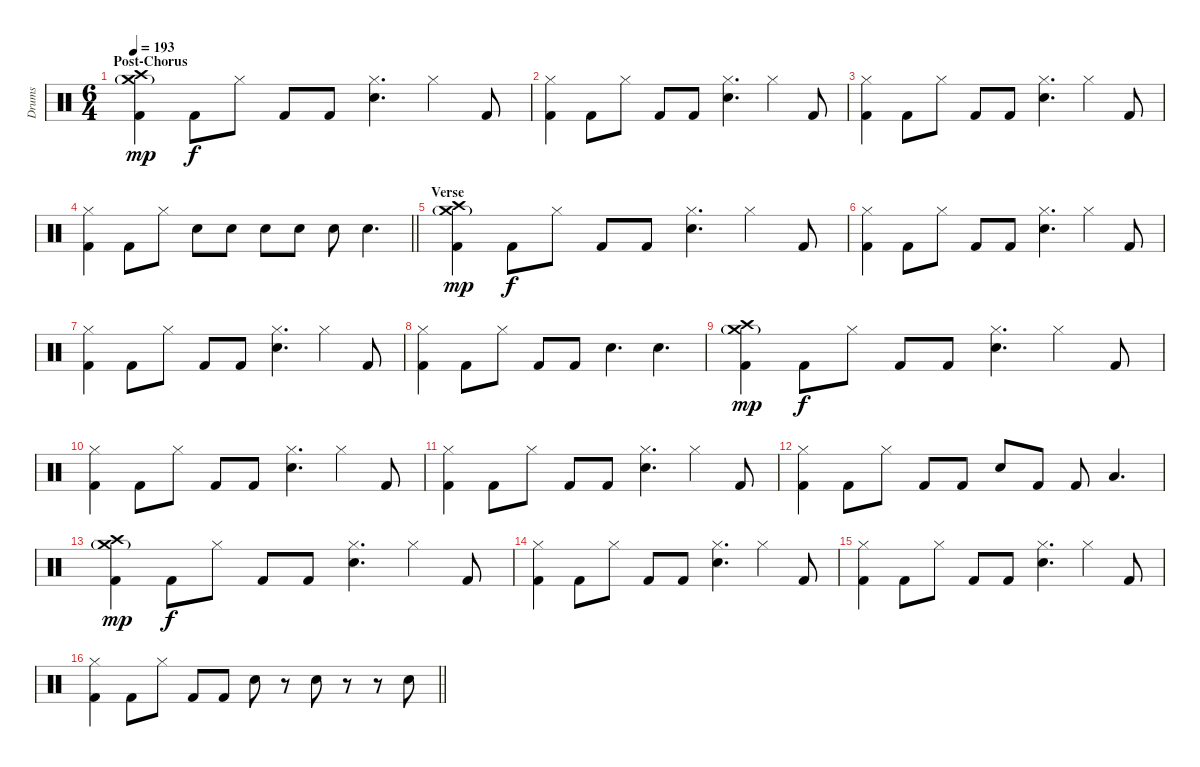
\track ("Drums" "Drums") {instrument percussion}
\staff {score}
\articulation defaults
\ts (6 4)
\section ("" "Post-Chorus")
\tempo 193
\clef neutral
\ks c
("Crash high (hit)" "Crash medium (hit)"{g} "Kick (hit) 2").4{dy mp} "Kick (hit) 2".8{dy f} "Hi-Hat (closed)".8 "Kick (hit) 2".8 "Kick (hit) 2".8 ("Hi-Hat (closed)" "Electric Snare (hit)").4{d} "Hi-Hat (closed)".4 "Kick (hit) 2".8 |
("Hi-Hat (closed)" "Kick (hit) 2").4 "Kick (hit) 2".8 "Hi-Hat (closed)".8 "Kick (hit) 2".8 "Kick (hit) 2".8 ("Hi-Hat (closed)" "Electric Snare (hit)").4{d} "Hi-Hat (closed)".4 "Kick (hit) 2".8 |
("Hi-Hat (closed)" "Kick (hit) 2").4 "Kick (hit) 2".8 "Hi-Hat (closed)".8 "Kick (hit) 2".8 "Kick (hit) 2".8 ("Hi-Hat (closed)" "Electric Snare (hit)").4{d} "Hi-Hat (closed)".4 "Kick (hit) 2".8 |
\barLineRight lightlight
("Hi-Hat (closed)" "Kick (hit) 2").4 "Kick (hit) 2".8 "Hi-Hat (closed)".8 "Electric Snare (hit)".8 "Electric Snare (hit)".8 "Electric Snare (hit)".8 "Electric Snare (hit)".8 "Electric Snare (hit)".8 "Electric Snare (hit)".4{d} |
\section ("" "Verse")
("Crash high (hit)" "Crash medium (hit)"{g} "Kick (hit) 2").4{dy mp} "Kick (hit) 2".8{dy f} "Hi-Hat (closed)".8 "Kick (hit) 2".8 "Kick (hit) 2".8 ("Hi-Hat (closed)" "Electric Snare (hit)").4{d} "Hi-Hat (closed)".4 "Kick (hit) 2".8 |
("Hi-Hat (closed)" "Kick (hit) 2").4 "Kick (hit) 2".8 "Hi-Hat (closed)".8 "Kick (hit) 2".8 "Kick (hit) 2".8 ("Hi-Hat (closed)" "Electric Snare (hit)").4{d} "Hi-Hat (closed)".4 "Kick (hit) 2".8 |
("Hi-Hat (closed)" "Kick (hit) 2").4 "Kick (hit) 2".8 "Hi-Hat (closed)".8 "Kick (hit) 2".8 "Kick (hit) 2".8 ("Hi-Hat (closed)" "Electric Snare (hit)").4{d} "Hi-Hat (closed)".4 "Kick (hit) 2".8 |
("Hi-Hat (closed)" "Kick (hit) 2").4 "Kick (hit) 2".8 "Hi-Hat (closed)".8 "Kick (hit) 2".8 "Kick (hit) 2".8 "Electric Snare (hit)".4{d} "Electric Snare (hit)".4{d} |
("Crash high (hit)" "Crash medium (hit)"{g} "Kick (hit) 2").4{dy mp} "Kick (hit) 2".8{dy f} "Hi-Hat (closed)".8 "Kick (hit) 2".8 "Kick (hit) 2".8 ("Hi-Hat (closed)" "Electric Snare (hit)").4{d} "Hi-Hat (closed)".4 "Kick (hit) 2".8 |
("Hi-Hat (closed)" "Kick (hit) 2").4 "Kick (hit) 2".8 "Hi-Hat (closed)".8 "Kick (hit) 2".8 "Kick (hit) 2".8 ("Hi-Hat (closed)" "Electric Snare (hit)").4{d} "Hi-Hat (closed)".4 "Kick (hit) 2".8 |
("Hi-Hat (closed)" "Kick (hit) 2").4 "Kick (hit) 2".8 "Hi-Hat (closed)".8 "Kick (hit) 2".8 "Kick (hit) 2".8 ("Hi-Hat (closed)" "Electric Snare (hit)").4{d} "Hi-Hat (closed)".4 "Kick (hit) 2".8 |
("Hi-Hat (closed)" "Kick (hit) 2").4 "Kick (hit) 2".8 "Hi-Hat (closed)".8 "Kick (hit) 2".8 "Kick (hit) 2".8 "Electric Snare (hit)".8 "Kick (hit) 2".8 "Kick (hit) 2".8 "Low Floor Tom (hit)".4{d} |
("Crash high (hit)" "Crash medium (hit)"{g} "Kick (hit) 2").4{dy mp} "Kick (hit) 2".8{dy f} "Hi-Hat (closed)".8 "Kick (hit) 2".8 "Kick (hit) 2".8 ("Hi-Hat (closed)" "Electric Snare (hit)").4{d} "Hi-Hat (closed)".4 "Kick (hit) 2".8 |
("Hi-Hat (closed)" "Kick (hit) 2").4 "Kick (hit) 2".8 "Hi-Hat (closed)".8 "Kick (hit) 2".8 "Kick (hit) 2".8 ("Hi-Hat (closed)" "Electric Snare (hit)").4{d} "Hi-Hat (closed)".4 "Kick (hit) 2".8 |
("Hi-Hat (closed)" "Kick (hit) 2").4 "Kick (hit) 2".8 "Hi-Hat (closed)".8 "Kick (hit) 2".8 "Kick (hit) 2".8 ("Hi-Hat (closed)" "Electric Snare (hit)").4{d} "Hi-Hat (closed)".4 "Kick (hit) 2".8 |
\barLineRight lightlight
("Hi-Hat (closed)" "Kick (hit) 2").4 "Kick (hit) 2".8 "Hi-Hat (closed)".8 "Kick (hit) 2".8 "Kick (hit) 2".8 "Electric Snare (hit)".8 r.8 "Electric Snare (hit)".8 r.8 r.8 "Electric Snare (hit)".8
